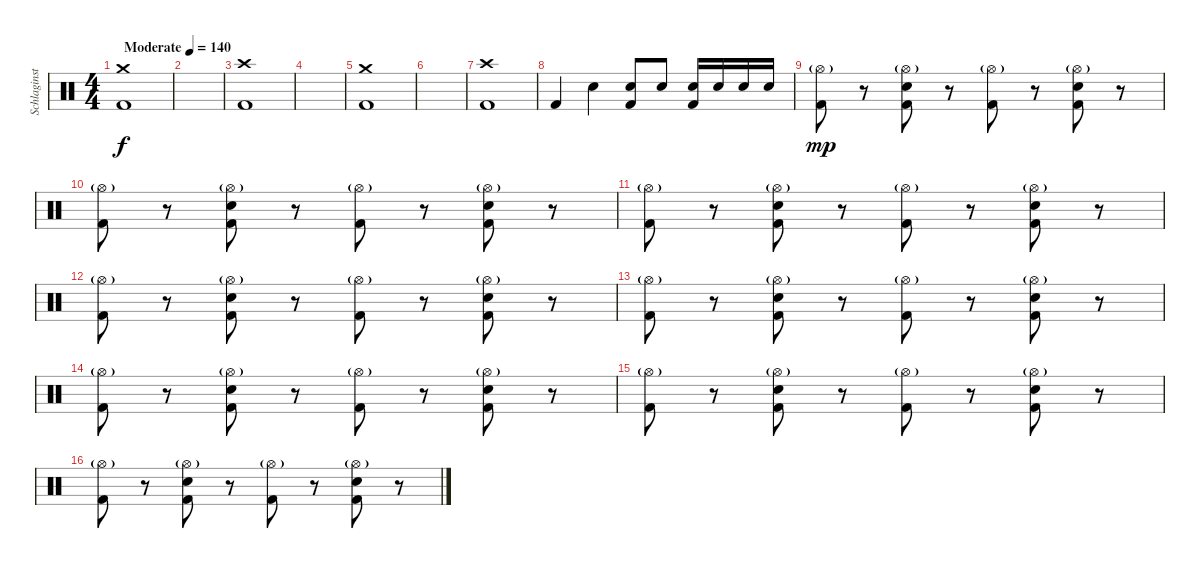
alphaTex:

\track ("Schlaginstrumente - Auswahl" "Schlaginst") {instrument percussion}
\staff {score}
\articulation defaults
\ts (4 4)
\tempo (140 "Moderate")
\clef neutral
\ks c
("Crash medium (hit)" "Kick (hit) 2").1{dy f} |
|
("Crash high (hit)" "Kick (hit) 2").1 |
|
("Crash medium (hit)" "Kick (hit) 2").1 |
|
("Crash high (hit)" "Kick (hit) 2").1 |
"Kick (hit) 2".4 "Electric Snare (hit)".4 ("Electric Snare (hit)" "Kick (hit) 2").8 "Electric Snare (hit)".8 ("Electric Snare (hit)" "Kick (hit) 2").16 "Electric Snare (hit)".16 "Electric Snare (hit)".16 "Electric Snare (hit)".16 |
("Hi-Hat (open)"{g} "Kick (hit) 2").8{dy mp} r.8 ("Hi-Hat (open)"{g} "Electric Snare (hit)" "Kick (hit) 2").8 r.8 ("Hi-Hat (open)"{g} "Kick (hit) 2").8 r.8 ("Hi-Hat (open)"{g} "Electric Snare (hit)" "Kick (hit) 2").8 r.8 |
("Hi-Hat (open)"{g} "Kick (hit) 2").8 r.8 ("Hi-Hat (open)"{g} "Electric Snare (hit)" "Kick (hit) 2").8 r.8 ("Hi-Hat (open)"{g} "Kick (hit) 2").8 r.8 ("Hi-Hat (open)"{g} "Electric Snare (hit)" "Kick (hit) 2").8 r.8 |
("Hi-Hat (open)"{g} "Kick (hit) 2").8 r.8 ("Hi-Hat (open)"{g} "Electric Snare (hit)" "Kick (hit) 2").8 r.8 ("Hi-Hat (open)"{g} "Kick (hit) 2").8 r.8 ("Hi-Hat (open)"{g} "Electric Snare (hit)" "Kick (hit) 2").8 r.8 |
("Hi-Hat (open)"{g} "Kick (hit) 2").8 r.8 ("Hi-Hat (open)"{g} "Electric Snare (hit)" "Kick (hit) 2").8 r.8 ("Hi-Hat (open)"{g} "Kick (hit) 2").8 r.8 ("Hi-Hat (open)"{g} "Electric Snare (hit)" "Kick (hit) 2").8 r.8 |
("Hi-Hat (open)"{g} "Kick (hit) 2").8 r.8 ("Hi-Hat (open)"{g} "Electric Snare (hit)" "Kick (hit) 2").8 r.8 ("Hi-Hat (open)"{g} "Kick (hit) 2").8 r.8 ("Hi-Hat (open)"{g} "Electric Snare (hit)" "Kick (hit) 2").8 r.8 |
("Hi-Hat (open)"{g} "Kick (hit) 2").8 r.8 ("Hi-Hat (open)"{g} "Electric Snare (hit)" "Kick (hit) 2").8 r.8 ("Hi-Hat (open)"{g} "Kick (hit) 2").8 r.8 ("Hi-Hat (open)"{g} "Electric Snare (hit)" "Kick (hit) 2").8 r.8 |
("Hi-Hat (open)"{g} "Kick (hit) 2").8 r.8 ("Hi-Hat (open)"{g} "Electric Snare (hit)" "Kick (hit) 2").8 r.8 ("Hi-Hat (open)"{g} "Kick (hit) 2").8 r.8 ("Hi-Hat (open)"{g} "Electric Snare (hit)" "Kick (hit) 2").8 r.8 |
("Hi-Hat (open)"{g} "Kick (hit) 2").8 r.8 ("Hi-Hat (open)"{g} "Electric Snare (hit)" "Kick (hit) 2").8 r.8 ("Hi-Hat (open)"{g} "Kick (hit) 2").8 r.8 ("Hi-Hat (open)"{g} "Electric Snare (hit)" "Kick (hit) 2").8 r.8
